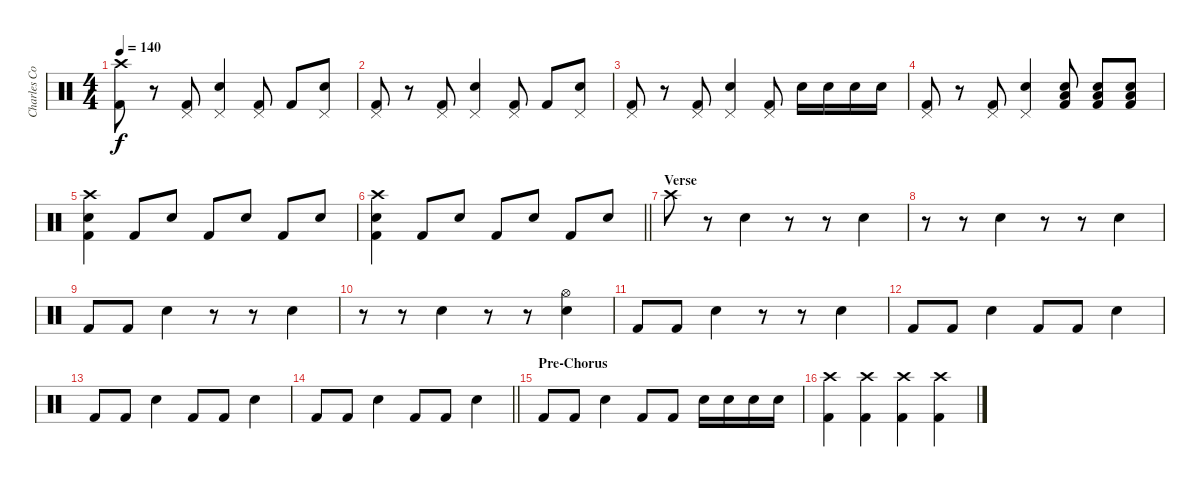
\track ("Charles Comeau" "Charles Co") {instrument percussion}
\staff {score}
\articulation defaults
\ts (4 4)
\tempo 140
\clef neutral
\ks c
("Crash high (hit)" "Kick (hit) 2").8{dy f} r.8 ("Pedal Hi-Hat (hit)" "Kick (hit) 2").8 ("Pedal Hi-Hat (hit)" "Snare (hit) 2").4 ("Pedal Hi-Hat (hit)" "Kick (hit) 2").8 "Kick (hit) 2".8 ("Pedal Hi-Hat (hit)" "Snare (hit) 2").8 |
("Pedal Hi-Hat (hit)" "Kick (hit) 2").8 r.8 ("Pedal Hi-Hat (hit)" "Kick (hit) 2").8 ("Pedal Hi-Hat (hit)" "Snare (hit) 2").4 ("Pedal Hi-Hat (hit)" "Kick (hit) 2").8 "Kick (hit) 2".8 ("Pedal Hi-Hat (hit)" "Snare (hit) 2").8 |
("Pedal Hi-Hat (hit)" "Kick (hit) 2").8 r.8 ("Pedal Hi-Hat (hit)" "Kick (hit) 2").8 ("Pedal Hi-Hat (hit)" "Snare (hit) 2").4 ("Pedal Hi-Hat (hit)" "Kick (hit) 2").8 "Snare (hit) 2".16 "Snare (hit) 2".16 "Snare (hit) 2".16 "Snare (hit) 2".16 |
("Pedal Hi-Hat (hit)" "Kick (hit) 2").8 r.8 ("Pedal Hi-Hat (hit)" "Kick (hit) 2").8 ("Pedal Hi-Hat (hit)" "Snare (hit) 2").4 ("Snare (hit) 2" "Low Tom (hit)" "Kick (hit) 2").8 ("Snare (hit) 2" "Low Tom (hit)" "Kick (hit) 2").8 ("Snare (hit) 2" "Low Tom (hit)" "Kick (hit) 2").8 |
("Crash high (hit)" "Snare (hit) 2" "Kick (hit) 2").4 "Kick (hit) 2".8 "Snare (hit) 2".8 "Kick (hit) 2".8 "Snare (hit) 2".8 "Kick (hit) 2".8 "Snare (hit) 2".8 |
\barLineRight lightlight
("Crash high (hit)" "Snare (hit) 2" "Kick (hit) 2").4 "Kick (hit) 2".8 "Snare (hit) 2".8 "Kick (hit) 2".8 "Snare (hit) 2".8 "Kick (hit) 2".8 "Snare (hit) 2".8 |
\section ("" "Verse")
"Crash high (hit)".8 r.8 "Snare (hit) 2".4 r.8 r.8 "Snare (hit) 2".4 |
r.8 r.8 "Snare (hit) 2".4 r.8 r.8 "Snare (hit) 2".4 |
"Kick (hit) 2".8 "Kick (hit) 2".8 "Snare (hit) 2".4 r.8 r.8 "Snare (hit) 2".4 |
r.8 r.8 "Snare (hit) 2".4 r.8 r.8 ("Hi-Hat (open)" "Snare (hit) 2").4 |
"Kick (hit) 2".8 "Kick (hit) 2".8 "Snare (hit) 2".4 r.8 r.8 "Snare (hit) 2".4 |
"Kick (hit) 2".8 "Kick (hit) 2".8 "Snare (hit) 2".4 "Kick (hit) 2".8 "Kick (hit) 2".8 "Snare (hit) 2".4 |
"Kick (hit) 2".8 "Kick (hit) 2".8 "Snare (hit) 2".4 "Kick (hit) 2".8 "Kick (hit) 2".8 "Snare (hit) 2".4 |
\barLineRight lightlight "Kick (hit) 2".8 "Kick (hit) 2".8 "Snare (hit) 2".4 "Kick (hit) 2".8 "Kick (hit) 2".8 "Snare (hit) 2".4
|
\section ("" "Pre-Chorus")
"Kick (hit) 2".8 "Kick (hit) 2".8 "Snare (hit) 2".4 "Kick (hit) 2".8 "Kick (hit) 2".8 "Snare (hit) 2".16 "Snare (hit) 2".16 "Snare (hit) 2".16 "Snare (hit) 2".16 |
("Crash high (hit)" "Kick (hit) 2").4 ("Crash high (hit)" "Kick (hit) 2").4 ("Crash high (hit)" "Kick (hit) 2").4 ("Crash high (hit)" "Kick (hit) 2").4
